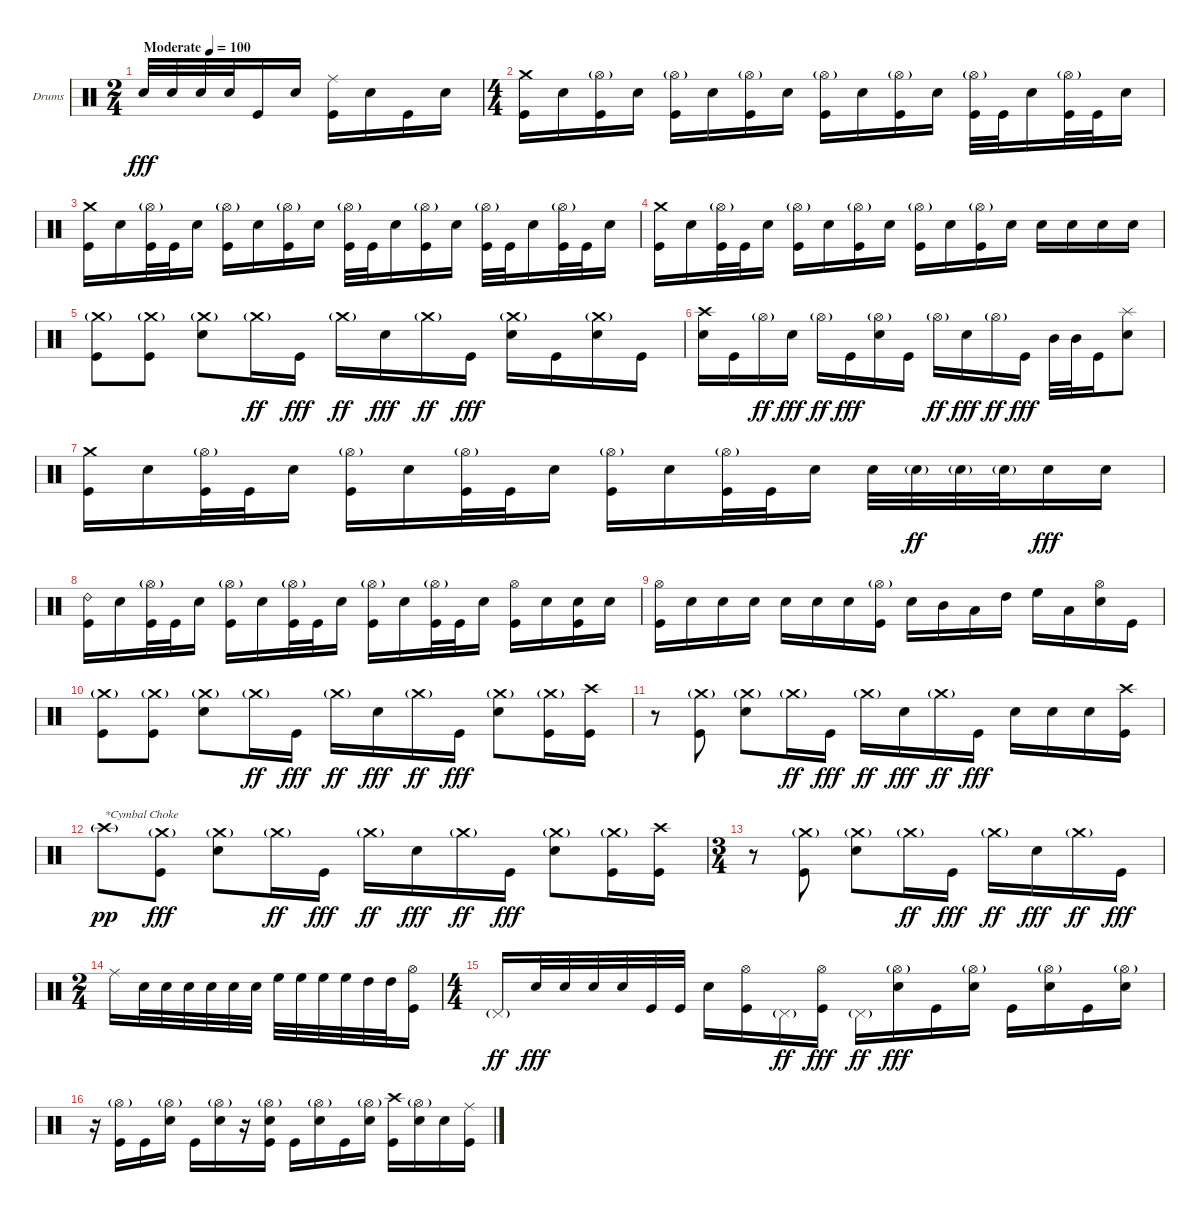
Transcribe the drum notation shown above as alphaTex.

\bracketExtendMode groupsimilarinstruments
\firstSystemTrackNameOrientation horizontal
\otherSystemsTrackNameOrientation horizontal
\track ("Drumkit" "Drums") {instrument percussion}
\staff {score}
\articulation defaults
\ts (2 4)
\beaming (8 2 2)
\tempo (100 "Moderate")
\clef neutral
\ks c "Snare (hit) 2".32{dy fff} "Snare (hit) 2".32 "Snare (hit) 2".32 "Snare (hit) 2".32 "Kick (hit)".16 "Snare (hit) 2".16
("Ride (middle)" "Kick (hit)").16 "Snare (hit) 2".16 "Kick (hit)".16 "Snare (hit) 2".16 |
\ts (4 4)
\beaming (8 2 2 2 2)
("Crash medium (hit)" "Kick (hit)").16 "Snare (hit) 2".16 ("Hi-Hat (open)"{g} "Kick (hit)").16 "Snare (hit) 2".16 ("Hi-Hat (open)"{g} "Kick (hit)").16 "Snare (hit) 2".16 ("Hi-Hat (open)"{g} "Kick (hit)").16 "Snare (hit) 2".16 ("Hi-Hat (open)"{g} "Kick (hit)").16 "Snare (hit) 2".16 ("Hi-Hat (open)"{g} "Kick (hit)").16 "Snare (hit) 2".16 ("Hi-Hat (open)"{g} "Kick (hit)").32 "Kick (hit)".32 "Snare (hit) 2".16 ("Hi-Hat (open)"{g} "Kick (hit)").32 "Kick (hit)".32 "Snare (hit) 2".16 |
("Crash medium (hit)" "Kick (hit)").16 "Snare (hit) 2".16 ("Hi-Hat (open)"{g} "Kick (hit)").32 "Kick (hit)".32 "Snare (hit) 2".16 ("Hi-Hat (open)"{g} "Kick (hit)").16 "Snare (hit) 2".16 ("Hi-Hat (open)"{g} "Kick (hit)").16 "Snare (hit) 2".16 ("Hi-Hat (open)"{g} "Kick (hit)").32 "Kick (hit)".32 "Snare (hit) 2".16 ("Hi-Hat (open)"{g} "Kick (hit)").16 "Snare (hit) 2".16 ("Hi-Hat (open)"{g} "Kick (hit)").32 "Kick (hit)".32 "Snare (hit) 2".16 ("Hi-Hat (open)"{g} "Kick (hit)").32 "Kick (hit)".32 "Snare (hit) 2".16 |
("Crash medium (hit)" "Kick (hit)").16 "Snare (hit) 2".16 ("Hi-Hat (open)"{g} "Kick (hit)").32 "Kick (hit)".32 "Snare (hit) 2".16 ("Hi-Hat (open)"{g} "Kick (hit)").16 "Snare (hit) 2".16 ("Hi-Hat (open)"{g} "Kick (hit)").16 "Snare (hit) 2".16 ("Hi-Hat (open)"{g} "Kick (hit)").16 "Snare (hit) 2".16 ("Hi-Hat (open)"{g} "Kick (hit)").16 "Snare (hit) 2".16 "Snare (hit) 2".16 "Snare (hit) 2".16 "Snare (hit) 2".16 "Snare (hit) 2".16 |
("Crash medium (hit)"{g} "Kick (hit)").8 ("Crash medium (hit)"{g} "Kick (hit)").8 ("Crash medium (hit)"{g} "Snare (hit) 2").8 "Crash medium (hit)"{g}.16{dy ff} "Kick (hit)".16{dy fff} "Crash medium (hit)"{g}.16{dy ff} "Snare (hit) 2".16{dy fff} "Crash medium (hit)"{g}.16{dy ff} "Kick (hit)".16{dy fff} ("Crash medium (hit)"{g} "Snare (hit) 2").16 "Kick (hit)".16 ("Crash medium (hit)"{g} "Snare (hit) 2").16 "Kick (hit)".16 |
("Crash high (hit)" "Snare (hit) 2").16 "Kick (hit)".16 "Hi-Hat (open)"{g}.16{dy ff} "Snare (hit) 2".16{dy fff} "Hi-Hat (open)"{g}.16{dy ff} "Kick (hit)".16{dy fff} ("Hi-Hat (open)"{g} "Snare (hit) 2").16 "Kick (hit)".16 "Hi-Hat (open)"{g}.16{dy ff} "Snare (hit) 2".16{dy fff} "Hi-Hat (open)"{g}.16{dy ff} "Kick (hit)".16{dy fff} "Mid Tom (hit)".32 "Mid Tom (hit)".32 "Kick (hit)".16 ("Splash (hit)" "Snare (hit) 2").8 |
("Crash medium (hit)" "Kick (hit)").16 "Snare (hit) 2".16 ("Hi-Hat (open)"{g} "Kick (hit)").32 "Kick (hit)".32 "Snare (hit) 2".16 ("Hi-Hat (open)"{g} "Kick (hit)").16 "Snare (hit) 2".16 ("Hi-Hat (open)"{g} "Kick (hit)").32 "Kick (hit)".32 "Snare (hit) 2".16 ("Hi-Hat (open)"{g} "Kick (hit)").16 "Snare (hit) 2".16 ("Hi-Hat (open)"{g} "Kick (hit)").32 "Kick (hit)".32 "Snare (hit) 2".16 "Snare (hit) 2".32 "Snare (hit) 2"{g}.32{dy ff} "Snare (hit) 2"{g}.32 "Snare (hit) 2"{g}.32 "Snare (hit) 2".16{dy fff} "Snare (hit) 2".16 |
("Ride (bell) 2" "Kick (hit)").16 "Snare (hit) 2".16 ("Hi-Hat (open)"{g} "Kick (hit)").32 "Kick (hit)".32 "Snare (hit) 2".16 ("Hi-Hat (open)"{g} "Kick (hit)").16 "Snare (hit) 2".16 ("Hi-Hat (open)"{g} "Kick (hit)").32 "Kick (hit)".32 "Snare (hit) 2".16 ("Hi-Hat (open)"{g} "Kick (hit)").16 "Snare (hit) 2".16 ("Hi-Hat (open)"{g} "Kick (hit)").32 "Kick (hit)".32 "Snare (hit) 2".16 ("Hi-Hat (open)" "Kick (hit)").16 "Snare (hit) 2".16 ("Snare (hit) 2" "Kick (hit)").16 "Snare (hit) 2".16 |
("Hi-Hat (open)" "Kick (hit)").16 "Snare (hit) 2".16 "Snare (hit) 2".16 "Snare (hit) 2".16 "Snare (hit) 2".16 "Snare (hit) 2".16 "Snare (hit) 2".16 ("Hi-Hat (open)"{g} "Kick (hit)").16 "Snare (hit) 2".16 "Mid Tom (hit)".16 "Low Tom (hit)".16 "High Tom (hit)".16 "High Floor Tom (hit)".16 "Low Tom (hit)".16 ("Hi-Hat (open)" "Snare (hit) 2").16 "Kick (hit)".16 |
("Crash medium (hit)"{g} "Kick (hit)").8 ("Crash medium (hit)"{g} "Kick (hit)").8 ("Crash medium (hit)"{g} "Snare (hit) 2").8 "Crash medium (hit)"{g}.16{dy ff} "Kick (hit)".16{dy fff} "Crash medium (hit)"{g}.16{dy ff} "Snare (hit) 2".16{dy fff} "Crash medium (hit)"{g}.16{dy ff} "Kick (hit)".16{dy fff} ("Crash medium (hit)"{g} "Snare (hit) 2").8 ("Crash medium (hit)"{g} "Kick (hit)").16 ("Crash high (hit)" "Kick (hit)").16 |
r.8 ("Crash medium (hit)"{g} "Kick (hit)").8 ("Crash medium (hit)"{g} "Snare (hit) 2").8 "Crash medium (hit)"{g}.16{dy ff} "Kick (hit)".16{dy fff} "Crash medium (hit)"{g}.16{dy ff} "Snare (hit) 2".16{dy fff} "Crash medium (hit)"{g}.16{dy ff} "Kick (hit)".16{dy fff} "Snare (hit) 2".16 "Snare (hit) 2".16 "Snare (hit) 2".16 ("Crash high (hit)" "Kick (hit)").16 |
"Crash high (hit)"{g}.8{txt "*Cymbal Choke" dy pp} ("Crash medium (hit)"{g} "Kick (hit)").8{dy fff} ("Crash medium (hit)"{g} "Snare (hit) 2").8 "Crash medium (hit)"{g}.16{dy ff} "Kick (hit)".16{dy fff} "Crash medium (hit)"{g}.16{dy ff} "Snare (hit) 2".16{dy fff} "Crash medium (hit)"{g}.16{dy ff} "Kick (hit)".16{dy fff} ("Crash medium (hit)"{g} "Snare (hit) 2").8 ("Crash medium (hit)"{g} "Kick (hit)").16 ("Crash high (hit)" "Kick (hit)").16 |
\ts (3 4)
\beaming (8 2 2 2)
r.8 ("Crash medium (hit)"{g} "Kick (hit)").8 ("Crash medium (hit)"{g} "Snare (hit) 2").8 "Crash medium (hit)"{g}.16{dy ff} "Kick (hit)".16{dy fff} "Crash medium (hit)"{g}.16{dy ff} "Snare (hit) 2".16{dy fff} "Crash medium (hit)"{g}.16{dy ff} "Kick (hit)".16{dy fff} |
\ts (2 4)
\beaming (8 2 2)
"Ride (middle)".16 "Snare (hit) 2".32 "Snare (hit) 2".32 "Snare (hit) 2".32 "Snare (hit) 2".32 "Snare (hit) 2".32 "Snare (hit) 2".32 "High Floor Tom (hit)".32 "High Floor Tom (hit)".32 "High Floor Tom (hit)".32 "High Floor Tom (hit)".32 "High Tom (hit)".32 "High Tom (hit)".32 ("Hi-Hat (open)" "Kick (hit)").16 |
\ts (4 4)
\beaming (8 2 2 2 2)
"Pedal Hi-Hat (hit)"{g}.16{dy ff} "Snare (hit) 2".32{dy fff} "Snare (hit) 2".32 "Snare (hit) 2".32 "Snare (hit) 2".32 "Kick (hit)".32 "Kick (hit)".32 "Snare (hit) 2".16 ("Hi-Hat (open)" "Kick (hit)").16 "Pedal Hi-Hat (hit)"{g}.16{dy ff} ("Hi-Hat (open)" "Kick (hit)").16{dy fff} "Pedal Hi-Hat (hit)"{g}.16{dy ff} ("Hi-Hat (open)"{g} "Snare (hit) 2").16{dy fff} "Kick (hit)".16 ("Hi-Hat (open)"{g} "Snare (hit) 2").16 "Kick (hit)".16 ("Hi-Hat (open)"{g} "Snare (hit) 2").16 "Kick (hit)".16 ("Hi-Hat (open)"{g} "Snare (hit) 2").16 |
r.16 ("Hi-Hat (open)"{g} "Kick (hit)").16 "Kick (hit)".16 ("Hi-Hat (open)"{g} "Snare (hit) 2").16 "Kick (hit)".16 ("Hi-Hat (open)"{g} "Snare (hit) 2").16 r.16 ("Hi-Hat (open)"{g} "Snare (hit) 2" "Kick (hit)").16 "Kick (hit)".16 ("Hi-Hat (open)"{g} "Snare (hit) 2").16 "Kick (hit)".16 ("Hi-Hat (open)"{g} "Snare (hit) 2").16 ("Crash high (hit)" "Kick (hit)").16 ("Hi-Hat (open)"{g} "Snare (hit) 2").16 "Snare (hit) 2".16 ("Ride (middle)" "Kick (hit)").16
